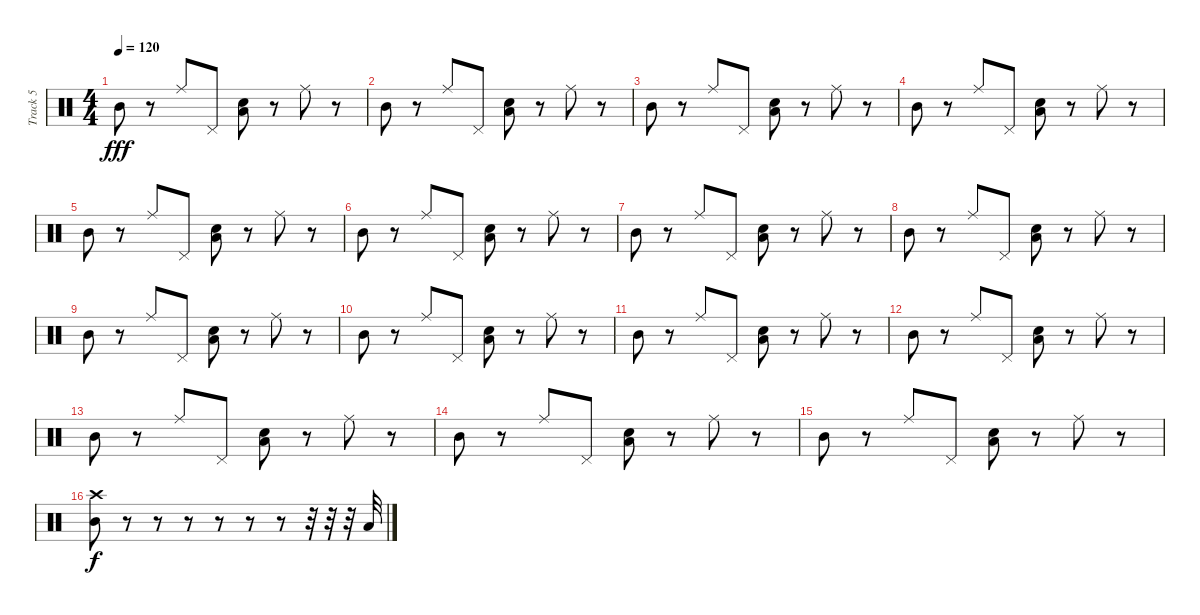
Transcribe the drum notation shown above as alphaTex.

\track ("Track 5" "Track 5") {instrument percussion}
\staff {score}
\articulation defaults
\ts (4 4)
\tempo 120
\clef neutral
\ks c "Mid Tom (hit)".8{dy fff}
r.8 "Ride (middle)".8 "Pedal Hi-Hat (hit)".8 ("Low Tom (hit)" "Snare (hit) 2").8 r.8 "Ride (middle)".8 r.8 |
"Mid Tom (hit)".8 r.8 "Ride (middle)".8 "Pedal Hi-Hat (hit)".8 ("Low Tom (hit)" "Snare (hit) 2").8 r.8 "Ride (middle)".8 r.8 |
"Mid Tom (hit)".8 r.8 "Ride (middle)".8 "Pedal Hi-Hat (hit)".8 ("Low Tom (hit)" "Snare (hit) 2").8 r.8 "Ride (middle)".8 r.8 |
"Mid Tom (hit)".8 r.8 "Ride (middle)".8 "Pedal Hi-Hat (hit)".8 ("Low Tom (hit)" "Snare (hit) 2").8 r.8 "Ride (middle)".8 r.8 |
"Mid Tom (hit)".8 r.8 "Ride (middle)".8 "Pedal Hi-Hat (hit)".8 ("Low Tom (hit)" "Snare (hit) 2").8 r.8 "Ride (middle)".8 r.8 |
"Mid Tom (hit)".8 r.8 "Ride (middle)".8 "Pedal Hi-Hat (hit)".8 ("Low Tom (hit)" "Snare (hit) 2").8 r.8 "Ride (middle)".8 r.8 |
"Mid Tom (hit)".8 r.8 "Ride (middle)".8 "Pedal Hi-Hat (hit)".8 ("Low Tom (hit)" "Snare (hit) 2").8 r.8 "Ride (middle)".8 r.8 |
"Mid Tom (hit)".8 r.8 "Ride (middle)".8 "Pedal Hi-Hat (hit)".8 ("Low Tom (hit)" "Snare (hit) 2").8 r.8 "Ride (middle)".8 r.8 |
"Mid Tom (hit)".8 r.8 "Ride (middle)".8 "Pedal Hi-Hat (hit)".8 ("Low Tom (hit)" "Snare (hit) 2").8 r.8 "Ride (middle)".8 r.8 |
"Mid Tom (hit)".8 r.8 "Ride (middle)".8 "Pedal Hi-Hat (hit)".8 ("Low Tom (hit)" "Snare (hit) 2").8 r.8 "Ride (middle)".8 r.8 |
"Mid Tom (hit)".8 r.8 "Ride (middle)".8 "Pedal Hi-Hat (hit)".8 ("Low Tom (hit)" "Snare (hit) 2").8 r.8 "Ride (middle)".8 r.8 |
"Mid Tom (hit)".8 r.8 "Ride (middle)".8 "Pedal Hi-Hat (hit)".8 ("Low Tom (hit)" "Snare (hit) 2").8 r.8 "Ride (middle)".8 r.8 |
"Mid Tom (hit)".8 r.8 "Ride (middle)".8 "Pedal Hi-Hat (hit)".8 ("Low Tom (hit)" "Snare (hit) 2").8 r.8 "Ride (middle)".8 r.8 |
"Mid Tom (hit)".8 r.8 "Ride (middle)".8 "Pedal Hi-Hat (hit)".8 ("Low Tom (hit)" "Snare (hit) 2").8 r.8 "Ride (middle)".8 r.8 |
"Mid Tom (hit)".8 r.8 "Ride (middle)".8 "Pedal Hi-Hat (hit)".8 ("Low Tom (hit)" "Snare (hit) 2").8 r.8 "Ride (middle)".8 r.8 |
("Mid Tom (hit)" "Crash high (hit)").8{dy f} r.8 r.8 r.8 r.8 r.8 r.8 r.32 r.32 r.32 "Low Tom (hit)".32
